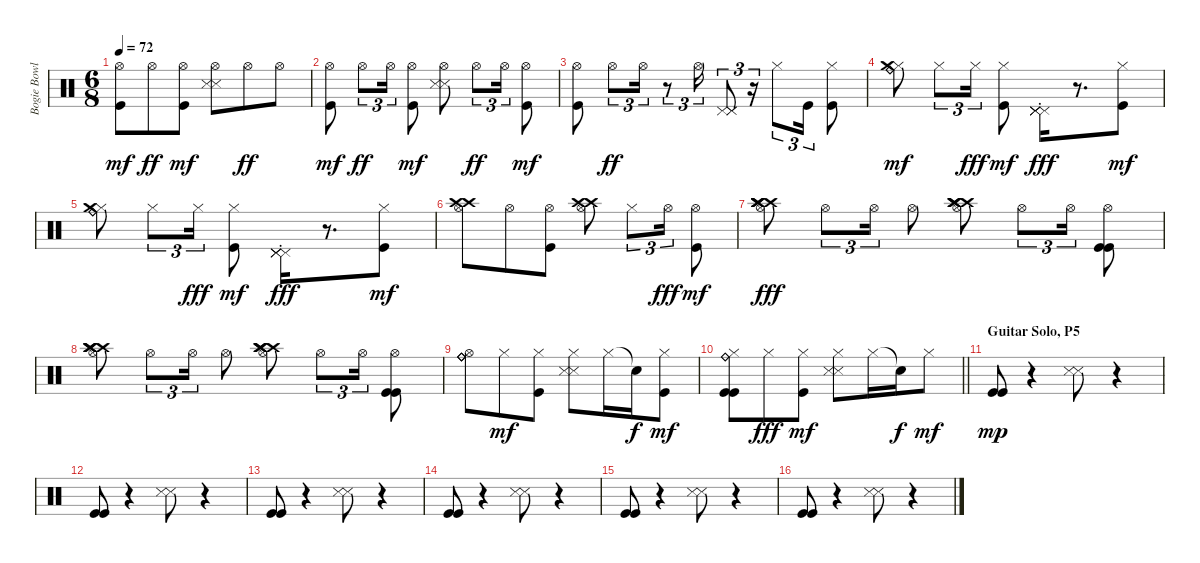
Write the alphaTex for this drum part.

\track ("Bogie Bowles" "Bogie Bowl") {instrument percussion}
\staff {score}
\articulation defaults
\ts (6 8)
\tempo 72
\clef neutral
\ks c
("Hi-Hat (open)" "Kick (hit)").8{dy mf} "Hi-Hat (open)".8{dy ff} ("Hi-Hat (open)" "Kick (hit)").8{dy mf} ("Hi-Hat (open)" "Snare (side stick) 3" "Snare (side stick) 3").8 "Hi-Hat (open)".8{dy ff} "Hi-Hat (open)".8 |
("Hi-Hat (open)" "Kick (hit)").8{dy mf} "Hi-Hat (open)".8{tu (3 2) dy ff} "Hi-Hat (open)".16{tu (3 2)} ("Hi-Hat (open)" "Kick (hit)").8{dy mf} ("Hi-Hat (open)" "Snare (side stick) 3" "Snare (side stick) 3").8 "Hi-Hat (open)".8{tu (3 2) dy ff} "Hi-Hat (open)".16{tu (3 2)} ("Hi-Hat (open)" "Kick (hit)").8{dy mf} |
("Hi-Hat (open)" "Kick (hit)").8 "Hi-Hat (open)".8{tu (3 2) dy ff} "Hi-Hat (open)".16{tu (3 2)} r.8{tu (3 2)} "Hi-Hat (open)".16{tu (3 2)} ("Pedal Hi-Hat (hit)" "Pedal Hi-Hat (hit)" "Pedal Hi-Hat (hit)").8{tu (3 2)} r.16{tu (3 2)} "Hi-Hat (closed)".8{tu (3 2)} "Kick (hit)".16{tu (3 2)} ("Hi-Hat (closed)" "Kick (hit)").8 |
("Hi-Hat (closed)" "Ride (bell)" "Ride (bell)" "Crash medium (hit)").8{dy mf volume 16} "Hi-Hat (closed)".8{tu (3 2)} "Hi-Hat (closed)".16{tu (3 2) dy fff} ("Hi-Hat (closed)" "Kick (hit)").8{dy mf} ("Pedal Hi-Hat (hit)"{st} "Pedal Hi-Hat (hit)" "Pedal Hi-Hat (hit)"{st} "Pedal Hi-Hat (hit)"{st}).16{dy fff} r.8{d} ("Hi-Hat (closed)" "Kick (hit)").8{dy mf} |
("Hi-Hat (closed)" "Ride (bell)" "Ride (bell)" "Crash medium (hit)").8{volume 16} "Hi-Hat (closed)".8{tu (3 2)} "Hi-Hat (closed)".16{tu (3 2) dy fff} ("Hi-Hat (closed)" "Kick (hit)").8{dy mf} ("Pedal Hi-Hat (hit)"{st} "Pedal Hi-Hat (hit)" "Pedal Hi-Hat (hit)"{st} "Pedal Hi-Hat (hit)"{st}).16{dy fff} r.8{d} ("Hi-Hat (closed)" "Kick (hit)").8{dy mf} |
("Hi-Hat (open)" "Crash high (hit)" "Crash high (hit)").8 "Hi-Hat (open)".8 ("Hi-Hat (open)" "Kick (hit)").8 ("Hi-Hat (open)" "Crash high (hit)" "Crash high (hit)").8 "Hi-Hat (closed)".8{tu (3 2)} "Hi-Hat (open)".16{tu (3 2) dy fff} ("Hi-Hat (open)" "Kick (hit)").8{dy mf} |
("Hi-Hat (open)" "Crash high (hit)" "Crash high (hit)" "Crash high (hit)" "Crash high (hit)").8{dy fff} "Hi-Hat (open)".8{tu (3 2)} "Hi-Hat (open)".16{tu (3 2)} "Hi-Hat (open)".8 ("Hi-Hat (open)" "Crash high (hit)" "Crash high (hit)" "Crash high (hit)" "Crash high (hit)").8 "Hi-Hat (open)".8{tu (3 2)} "Hi-Hat (open)".16{tu (3 2)} ("Hi-Hat (open)" "Kick (hit)" "Kick (hit)").8 |
("Hi-Hat (open)" "Crash high (hit)" "Crash high (hit)" "Crash high (hit)" "Crash high (hit)").8 "Hi-Hat (open)".8{tu (3 2)} "Hi-Hat (open)".16{tu (3 2)} "Hi-Hat (open)".8 ("Hi-Hat (open)" "Crash high (hit)" "Crash high (hit)" "Crash high (hit)" "Crash high (hit)").8 "Hi-Hat (open)".8{tu (3 2)} "Hi-Hat (open)".16{tu (3 2)} ("Hi-Hat (open)" "Kick (hit)" "Kick (hit)").8 |
("Hi-Hat (open)" "Ride (bell)" "Ride (bell)" "Ride (bell)").8 "Hi-Hat (closed)".8{dy mf} ("Hi-Hat (closed)" "Kick (hit)").8 ("Hi-Hat (closed)" "Snare (side stick) 3" "Snare (side stick) 3").8 "Hi-Hat (closed)".16 "Snare (hit)"{t}.16{dy f} ("Hi-Hat (closed)" "Kick (hit)").8{dy mf} |
\barLineRight lightlight
("Hi-Hat (closed)" "Ride (bell)" "Kick (hit)" "Kick (hit)" "Ride (bell)").8 "Hi-Hat (closed)".8{dy fff} ("Hi-Hat (closed)" "Kick (hit)").8{dy mf} ("Hi-Hat (closed)" "Snare (side stick) 3" "Snare (side stick) 3").8 "Hi-Hat (closed)".16 "Snare (hit)"{t}.16{dy f} "Hi-Hat (closed)".8{dy mf} |
\section ("" "Guitar Solo, P5")
("Kick (hit)" "Kick (hit)").8{dy mp} r.4 ("Snare (side stick) 3" "Snare (side stick) 3").8 r.4 |
("Kick (hit)" "Kick (hit)").8 r.4 ("Snare (side stick) 3" "Snare (side stick) 3").8 r.4 |
("Kick (hit)" "Kick (hit)").8 r.4 ("Snare (side stick) 3" "Snare (side stick) 3").8 r.4 |
("Kick (hit)" "Kick (hit)").8 r.4 ("Snare (side stick) 3" "Snare (side stick) 3").8 r.4 |
("Kick (hit)" "Kick (hit)").8 r.4 ("Snare (side stick) 3" "Snare (side stick) 3").8 r.4 |
("Kick (hit)" "Kick (hit)").8 r.4 ("Snare (side stick) 3" "Snare (side stick) 3").8 r.4
